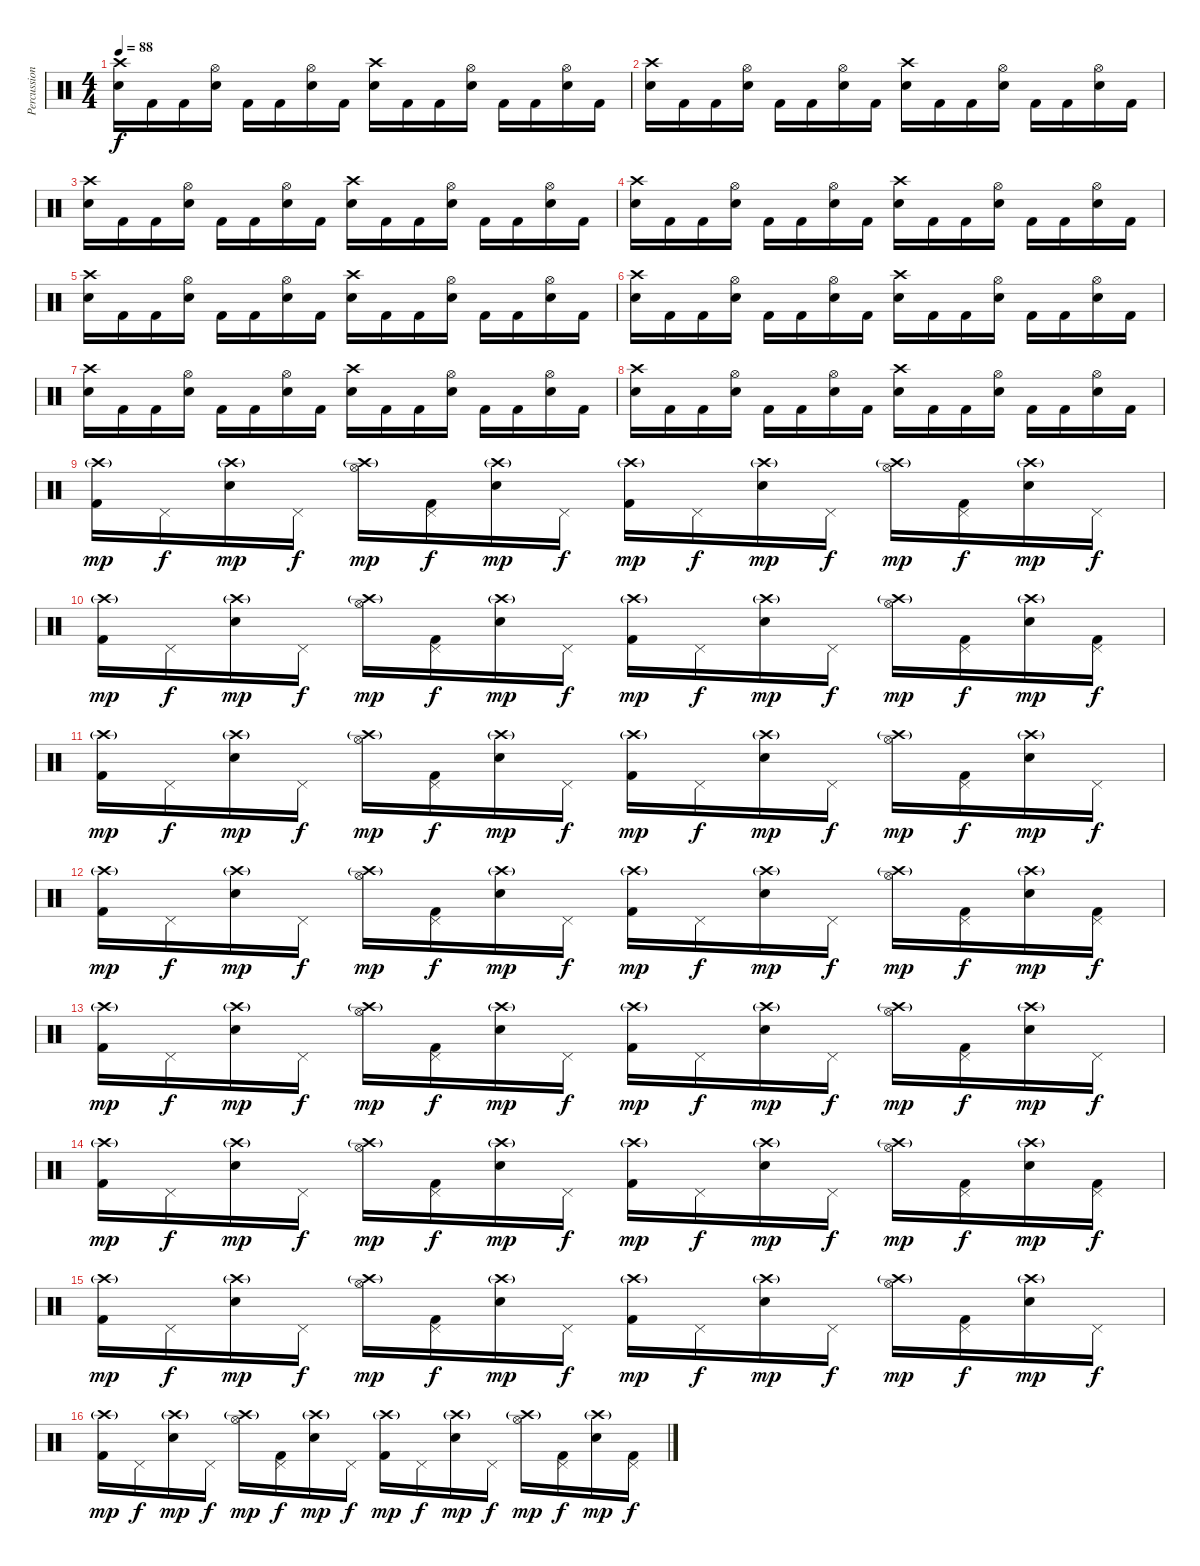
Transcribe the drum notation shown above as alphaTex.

\track ("Percussion" "Percussion") {instrument percussion}
\staff {score}
\articulation defaults
\ts (4 4)
\tempo 88
\clef neutral
\ks c
("Crash high (hit)" "Snare (hit) 2").16{dy f} "Kick (hit) 2".16 "Kick (hit) 2".16 ("Hi-Hat (open)" "Snare (hit) 2").16 "Kick (hit) 2".16 "Kick (hit) 2".16 ("Hi-Hat (open)" "Snare (hit) 2").16 "Kick (hit) 2".16 ("Crash high (hit)" "Snare (hit) 2").16 "Kick (hit) 2".16 "Kick (hit) 2".16 ("Hi-Hat (open)" "Snare (hit) 2").16 "Kick (hit) 2".16 "Kick (hit) 2".16 ("Hi-Hat (open)" "Snare (hit) 2").16 "Kick (hit) 2".16 |
("Crash high (hit)" "Snare (hit) 2").16 "Kick (hit) 2".16 "Kick (hit) 2".16 ("Hi-Hat (open)" "Snare (hit) 2").16 "Kick (hit) 2".16 "Kick (hit) 2".16 ("Hi-Hat (open)" "Snare (hit) 2").16 "Kick (hit) 2".16 ("Crash high (hit)" "Snare (hit) 2").16 "Kick (hit) 2".16 "Kick (hit) 2".16 ("Hi-Hat (open)" "Snare (hit) 2").16 "Kick (hit) 2".16 "Kick (hit) 2".16 ("Hi-Hat (open)" "Snare (hit) 2").16 "Kick (hit) 2".16 |
("Crash high (hit)" "Snare (hit) 2").16 "Kick (hit) 2".16 "Kick (hit) 2".16 ("Hi-Hat (open)" "Snare (hit) 2").16 "Kick (hit) 2".16 "Kick (hit) 2".16 ("Hi-Hat (open)" "Snare (hit) 2").16 "Kick (hit) 2".16 ("Crash high (hit)" "Snare (hit) 2").16 "Kick (hit) 2".16 "Kick (hit) 2".16 ("Hi-Hat (open)" "Snare (hit) 2").16 "Kick (hit) 2".16 "Kick (hit) 2".16 ("Hi-Hat (open)" "Snare (hit) 2").16 "Kick (hit) 2".16 |
("Crash high (hit)" "Snare (hit) 2").16 "Kick (hit) 2".16 "Kick (hit) 2".16 ("Hi-Hat (open)" "Snare (hit) 2").16 "Kick (hit) 2".16 "Kick (hit) 2".16 ("Hi-Hat (open)" "Snare (hit) 2").16 "Kick (hit) 2".16 ("Crash high (hit)" "Snare (hit) 2").16 "Kick (hit) 2".16 "Kick (hit) 2".16 ("Hi-Hat (open)" "Snare (hit) 2").16 "Kick (hit) 2".16 "Kick (hit) 2".16 ("Hi-Hat (open)" "Snare (hit) 2").16 "Kick (hit) 2".16 |
("Crash high (hit)" "Snare (hit) 2").16 "Kick (hit) 2".16 "Kick (hit) 2".16 ("Hi-Hat (open)" "Snare (hit) 2").16 "Kick (hit) 2".16 "Kick (hit) 2".16 ("Hi-Hat (open)" "Snare (hit) 2").16 "Kick (hit) 2".16 ("Crash high (hit)" "Snare (hit) 2").16 "Kick (hit) 2".16 "Kick (hit) 2".16 ("Hi-Hat (open)" "Snare (hit) 2").16 "Kick (hit) 2".16 "Kick (hit) 2".16 ("Hi-Hat (open)" "Snare (hit) 2").16 "Kick (hit) 2".16 |
("Crash high (hit)" "Snare (hit) 2").16 "Kick (hit) 2".16 "Kick (hit) 2".16 ("Hi-Hat (open)" "Snare (hit) 2").16 "Kick (hit) 2".16 "Kick (hit) 2".16 ("Hi-Hat (open)" "Snare (hit) 2").16 "Kick (hit) 2".16 ("Crash high (hit)" "Snare (hit) 2").16 "Kick (hit) 2".16 "Kick (hit) 2".16 ("Hi-Hat (open)" "Snare (hit) 2").16 "Kick (hit) 2".16 "Kick (hit) 2".16 ("Hi-Hat (open)" "Snare (hit) 2").16 "Kick (hit) 2".16 |
("Crash high (hit)" "Snare (hit) 2").16 "Kick (hit) 2".16 "Kick (hit) 2".16 ("Hi-Hat (open)" "Snare (hit) 2").16 "Kick (hit) 2".16 "Kick (hit) 2".16 ("Hi-Hat (open)" "Snare (hit) 2").16 "Kick (hit) 2".16 ("Crash high (hit)" "Snare (hit) 2").16 "Kick (hit) 2".16 "Kick (hit) 2".16 ("Hi-Hat (open)" "Snare (hit) 2").16 "Kick (hit) 2".16 "Kick (hit) 2".16 ("Hi-Hat (open)" "Snare (hit) 2").16 "Kick (hit) 2".16 |
("Crash high (hit)" "Snare (hit) 2").16 "Kick (hit) 2".16 "Kick (hit) 2".16 ("Hi-Hat (open)" "Snare (hit) 2").16 "Kick (hit) 2".16 "Kick (hit) 2".16 ("Hi-Hat (open)" "Snare (hit) 2").16 "Kick (hit) 2".16 ("Crash high (hit)" "Snare (hit) 2").16 "Kick (hit) 2".16 "Kick (hit) 2".16 ("Hi-Hat (open)" "Snare (hit) 2").16 "Kick (hit) 2".16 "Kick (hit) 2".16 ("Hi-Hat (open)" "Snare (hit) 2").16 "Kick (hit) 2".16 |
("Crash high (hit)"{g} "Kick (hit) 2").16{dy mp} "Pedal Hi-Hat (hit)".16{dy f} ("Crash high (hit)"{g} "Snare (hit) 2").16{dy mp} "Pedal Hi-Hat (hit)".16{dy f} ("Crash high (hit)"{g} "Hi-Hat (open)").16{dy mp} ("Pedal Hi-Hat (hit)" "Kick (hit) 2").16{dy f} ("Crash high (hit)"{g} "Snare (hit) 2").16{dy mp} "Pedal Hi-Hat (hit)".16{dy f} ("Crash high (hit)"{g} "Kick (hit) 2").16{dy mp} "Pedal Hi-Hat (hit)".16{dy f} ("Crash high (hit)"{g} "Snare (hit) 2").16{dy mp} "Pedal Hi-Hat (hit)".16{dy f} ("Crash high (hit)"{g} "Hi-Hat (open)").16{dy mp} ("Pedal Hi-Hat (hit)" "Kick (hit) 2").16{dy f} ("Crash high (hit)"{g} "Snare (hit) 2").16{dy mp} "Pedal Hi-Hat (hit)".16{dy f} |
("Crash high (hit)"{g} "Kick (hit) 2").16{dy mp} "Pedal Hi-Hat (hit)".16{dy f} ("Crash high (hit)"{g} "Snare (hit) 2").16{dy mp} "Pedal Hi-Hat (hit)".16{dy f} ("Crash high (hit)"{g} "Hi-Hat (open)").16{dy mp} ("Pedal Hi-Hat (hit)" "Kick (hit) 2").16{dy f} ("Crash high (hit)"{g} "Snare (hit) 2").16{dy mp} "Pedal Hi-Hat (hit)".16{dy f} ("Crash high (hit)"{g} "Kick (hit) 2").16{dy mp} "Pedal Hi-Hat (hit)".16{dy f} ("Crash high (hit)"{g} "Snare (hit) 2").16{dy mp} "Pedal Hi-Hat (hit)".16{dy f} ("Crash high (hit)"{g} "Hi-Hat (open)").16{dy mp} ("Pedal Hi-Hat (hit)" "Kick (hit) 2").16{dy f} ("Crash high (hit)"{g} "Snare (hit) 2").16{dy mp} ("Pedal Hi-Hat (hit)" "Kick (hit) 2").16{dy f} |
("Crash high (hit)"{g} "Kick (hit) 2").16{dy mp} "Pedal Hi-Hat (hit)".16{dy f} ("Crash high (hit)"{g} "Snare (hit) 2").16{dy mp} "Pedal Hi-Hat (hit)".16{dy f} ("Crash high (hit)"{g} "Hi-Hat (open)").16{dy mp} ("Pedal Hi-Hat (hit)" "Kick (hit) 2").16{dy f} ("Crash high (hit)"{g} "Snare (hit) 2").16{dy mp} "Pedal Hi-Hat (hit)".16{dy f} ("Crash high (hit)"{g} "Kick (hit) 2").16{dy mp} "Pedal Hi-Hat (hit)".16{dy f} ("Crash high (hit)"{g} "Snare (hit) 2").16{dy mp} "Pedal Hi-Hat (hit)".16{dy f} ("Crash high (hit)"{g} "Hi-Hat (open)").16{dy mp} ("Pedal Hi-Hat (hit)" "Kick (hit) 2").16{dy f} ("Crash high (hit)"{g} "Snare (hit) 2").16{dy mp} "Pedal Hi-Hat (hit)".16{dy f} |
("Crash high (hit)"{g} "Kick (hit) 2").16{dy mp} "Pedal Hi-Hat (hit)".16{dy f} ("Crash high (hit)"{g} "Snare (hit) 2").16{dy mp} "Pedal Hi-Hat (hit)".16{dy f} ("Crash high (hit)"{g} "Hi-Hat (open)").16{dy mp} ("Pedal Hi-Hat (hit)" "Kick (hit) 2").16{dy f} ("Crash high (hit)"{g} "Snare (hit) 2").16{dy mp} "Pedal Hi-Hat (hit)".16{dy f} ("Crash high (hit)"{g} "Kick (hit) 2").16{dy mp} "Pedal Hi-Hat (hit)".16{dy f} ("Crash high (hit)"{g} "Snare (hit) 2").16{dy mp} "Pedal Hi-Hat (hit)".16{dy f} ("Crash high (hit)"{g} "Hi-Hat (open)").16{dy mp} ("Pedal Hi-Hat (hit)" "Kick (hit) 2").16{dy f} ("Crash high (hit)"{g} "Snare (hit) 2").16{dy mp} ("Pedal Hi-Hat (hit)" "Kick (hit) 2").16{dy f} |
("Crash high (hit)"{g} "Kick (hit) 2").16{dy mp} "Pedal Hi-Hat (hit)".16{dy f} ("Crash high (hit)"{g} "Snare (hit) 2").16{dy mp} "Pedal Hi-Hat (hit)".16{dy f} ("Crash high (hit)"{g} "Hi-Hat (open)").16{dy mp} ("Pedal Hi-Hat (hit)" "Kick (hit) 2").16{dy f} ("Crash high (hit)"{g} "Snare (hit) 2").16{dy mp} "Pedal Hi-Hat (hit)".16{dy f} ("Crash high (hit)"{g} "Kick (hit) 2").16{dy mp} "Pedal Hi-Hat (hit)".16{dy f} ("Crash high (hit)"{g} "Snare (hit) 2").16{dy mp} "Pedal Hi-Hat (hit)".16{dy f} ("Crash high (hit)"{g} "Hi-Hat (open)").16{dy mp} ("Pedal Hi-Hat (hit)" "Kick (hit) 2").16{dy f} ("Crash high (hit)"{g} "Snare (hit) 2").16{dy mp} "Pedal Hi-Hat (hit)".16{dy f} |
("Crash high (hit)"{g} "Kick (hit) 2").16{dy mp} "Pedal Hi-Hat (hit)".16{dy f} ("Crash high (hit)"{g} "Snare (hit) 2").16{dy mp} "Pedal Hi-Hat (hit)".16{dy f} ("Crash high (hit)"{g} "Hi-Hat (open)").16{dy mp} ("Pedal Hi-Hat (hit)" "Kick (hit) 2").16{dy f} ("Crash high (hit)"{g} "Snare (hit) 2").16{dy mp} "Pedal Hi-Hat (hit)".16{dy f} ("Crash high (hit)"{g} "Kick (hit) 2").16{dy mp} "Pedal Hi-Hat (hit)".16{dy f} ("Crash high (hit)"{g} "Snare (hit) 2").16{dy mp} "Pedal Hi-Hat (hit)".16{dy f} ("Crash high (hit)"{g} "Hi-Hat (open)").16{dy mp} ("Pedal Hi-Hat (hit)" "Kick (hit) 2").16{dy f} ("Crash high (hit)"{g} "Snare (hit) 2").16{dy mp} ("Pedal Hi-Hat (hit)" "Kick (hit) 2").16{dy f} |
("Crash high (hit)"{g} "Kick (hit) 2").16{dy mp} "Pedal Hi-Hat (hit)".16{dy f} ("Crash high (hit)"{g} "Snare (hit) 2").16{dy mp} "Pedal Hi-Hat (hit)".16{dy f} ("Crash high (hit)"{g} "Hi-Hat (open)").16{dy mp} ("Pedal Hi-Hat (hit)" "Kick (hit) 2").16{dy f} ("Crash high (hit)"{g} "Snare (hit) 2").16{dy mp} "Pedal Hi-Hat (hit)".16{dy f} ("Crash high (hit)"{g} "Kick (hit) 2").16{dy mp} "Pedal Hi-Hat (hit)".16{dy f} ("Crash high (hit)"{g} "Snare (hit) 2").16{dy mp} "Pedal Hi-Hat (hit)".16{dy f} ("Crash high (hit)"{g} "Hi-Hat (open)").16{dy mp} ("Pedal Hi-Hat (hit)" "Kick (hit) 2").16{dy f} ("Crash high (hit)"{g} "Snare (hit) 2").16{dy mp} "Pedal Hi-Hat (hit)".16{dy f} |
("Crash high (hit)"{g} "Kick (hit) 2").16{dy mp} "Pedal Hi-Hat (hit)".16{dy f} ("Crash high (hit)"{g} "Snare (hit) 2").16{dy mp} "Pedal Hi-Hat (hit)".16{dy f} ("Crash high (hit)"{g} "Hi-Hat (open)").16{dy mp} ("Pedal Hi-Hat (hit)" "Kick (hit) 2").16{dy f} ("Crash high (hit)"{g} "Snare (hit) 2").16{dy mp} "Pedal Hi-Hat (hit)".16{dy f} ("Crash high (hit)"{g} "Kick (hit) 2").16{dy mp} "Pedal Hi-Hat (hit)".16{dy f} ("Crash high (hit)"{g} "Snare (hit) 2").16{dy mp} "Pedal Hi-Hat (hit)".16{dy f} ("Crash high (hit)"{g} "Hi-Hat (open)").16{dy mp} ("Pedal Hi-Hat (hit)" "Kick (hit) 2").16{dy f} ("Crash high (hit)"{g} "Snare (hit) 2").16{dy mp} ("Pedal Hi-Hat (hit)" "Kick (hit) 2").16{dy f}
